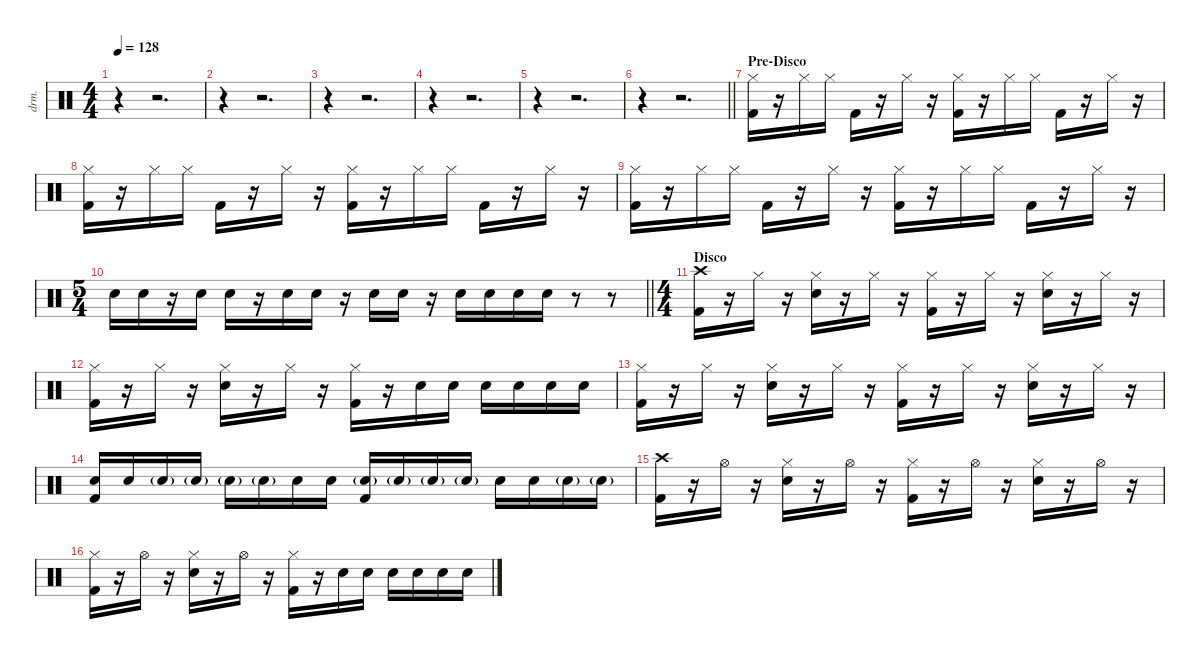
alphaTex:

\defaultSystemsLayout 4
\hideDynamics
\bracketExtendMode nobrackets
\otherSystemsTrackNameOrientation horizontal
\track ("Drums" "drm.") {instrument percussion}
\staff {score}
\articulation defaults
\ts (4 4)
\tempo 128
\clef neutral
\ks c
r.4{dy f beam Down} r.2{d beam Down} |
r.4{beam Down} r.2{d beam Down} |
r.4{beam Down} r.2{d beam Down} |
r.4{beam Down} r.2{d beam Down} |
r.4{beam Down} r.2{d beam Down} |
\barLineRight lightlight
r.4{beam Down} r.2{d beam Down} |
\section ("" "Pre-Disco")
("Hi-Hat (closed)" "Kick (hit) 2").16{beam Down} r.16{beam Down} "Hi-Hat (closed)".16{beam Down} "Hi-Hat (closed)".16{beam Down} "Kick (hit) 2".16{beam Down} r.16{beam Down} "Hi-Hat (closed)".16{beam Down} r.16{beam Down} ("Hi-Hat (closed)" "Kick (hit) 2").16{beam Down} r.16{beam Down} "Hi-Hat (closed)".16{beam Down} "Hi-Hat (closed)".16{beam Down} "Kick (hit) 2".16{beam Down} r.16{beam Down} "Hi-Hat (closed)".16{beam Down} r.16{beam Down} |
("Hi-Hat (closed)" "Kick (hit) 2").16{beam Down} r.16{beam Down} "Hi-Hat (closed)".16{beam Down} "Hi-Hat (closed)".16{beam Down} "Kick (hit) 2".16{beam Down} r.16{beam Down} "Hi-Hat (closed)".16{beam Down} r.16{beam Down} ("Hi-Hat (closed)" "Kick (hit) 2").16{beam Down} r.16{beam Down} "Hi-Hat (closed)".16{beam Down} "Hi-Hat (closed)".16{beam Down} "Kick (hit) 2".16{beam Down} r.16{beam Down} "Hi-Hat (closed)".16{beam Down} r.16{beam Down} |
("Hi-Hat (closed)" "Kick (hit) 2").16{beam Down} r.16{beam Down} "Hi-Hat (closed)".16{beam Down} "Hi-Hat (closed)".16{beam Down} "Kick (hit) 2".16{beam Down} r.16{beam Down} "Hi-Hat (closed)".16{beam Down} r.16{beam Down} ("Hi-Hat (closed)" "Kick (hit) 2").16{beam Down} r.16{beam Down} "Hi-Hat (closed)".16{beam Down} "Hi-Hat (closed)".16{beam Down} "Kick (hit) 2".16{beam Down} r.16{beam Down} "Hi-Hat (closed)".16{beam Down} r.16{beam Down} |
\ts (5 4)
\barLineRight lightlight "Snare (hit) 2".16{beam Down} "Snare (hit) 2".16{beam Down}
r.16{beam Down} "Snare (hit) 2".16{beam Down} "Snare (hit) 2".16{beam Down} r.16{beam Down} "Snare (hit) 2".16{beam Down} "Snare (hit) 2".16{beam Down} r.16{beam Down} "Snare (hit) 2".16{beam Down} "Snare (hit) 2".16{beam Down} r.16{beam Down} "Snare (hit) 2".16{beam Down} "Snare (hit) 2".16{beam Down} "Snare (hit) 2".16{beam Down} "Snare (hit) 2".16{beam Down} r.8{beam Down} r.8{beam Down} |
\ts (4 4)
\section ("" "Disco")
("Crash high (hit)" "Kick (hit) 2").16{beam Down} r.16{beam Down} "Hi-Hat (closed)".16{beam Down} r.16{beam Down} ("Hi-Hat (closed)" "Snare (hit) 2").16{beam Down} r.16{beam Down} "Hi-Hat (closed)".16{beam Down} r.16{beam Down} ("Hi-Hat (closed)" "Kick (hit) 2").16{beam Down} r.16{beam Down} "Hi-Hat (closed)".16{beam Down} r.16{beam Down} ("Hi-Hat (closed)" "Snare (hit) 2").16{beam Down} r.16{beam Down} "Hi-Hat (closed)".16{beam Down} r.16{beam Down} |
("Hi-Hat (closed)" "Kick (hit) 2").16{beam Down} r.16{beam Down} "Hi-Hat (closed)".16{beam Down} r.16{beam Down} ("Hi-Hat (closed)" "Snare (hit) 2").16{beam Down} r.16{beam Down} "Hi-Hat (closed)".16{beam Down} r.16{beam Down} ("Hi-Hat (closed)" "Kick (hit) 2").16{beam Down} r.16{beam Down} "Snare (hit) 2".16{beam Down} "Snare (hit) 2".16{beam Down} "Snare (hit) 2".16{beam Down} "Snare (hit) 2".16{beam Down} "Snare (hit) 2".16{beam Down} "Snare (hit) 2".16{beam Down} |
("Hi-Hat (closed)" "Kick (hit) 2").16{beam Down} r.16{beam Down} "Hi-Hat (closed)".16{beam Down} r.16{beam Down} ("Hi-Hat (closed)" "Snare (hit) 2").16{beam Down} r.16{beam Down} "Hi-Hat (closed)".16{beam Down} r.16{beam Down} ("Hi-Hat (closed)" "Kick (hit) 2").16{beam Down} r.16{beam Down} "Hi-Hat (closed)".16{beam Down} r.16{beam Down} ("Hi-Hat (closed)" "Snare (hit) 2").16{beam Down} r.16{beam Down} "Hi-Hat (closed)".16{beam Down} r.16{beam Down} |
("Snare (hit) 2" "Kick (hit) 2").16{beam Up} "Snare (hit) 2".16{beam Up} "Snare (hit) 2"{g}.16{beam Up} "Snare (hit) 2"{g}.16{beam Up} "Snare (hit) 2"{g}.16{beam Down} "Snare (hit) 2"{g}.16{beam Down} "Snare (hit) 2".16{beam Down} "Snare (hit) 2".16{beam Down} ("Snare (hit) 2"{g} "Kick (hit) 2").16{beam Up} "Snare (hit) 2"{g}.16{beam Up} "Snare (hit) 2"{g}.16{beam Up} "Snare (hit) 2"{g}.16{beam Up} "Snare (hit) 2".16{beam Down} "Snare (hit) 2".16{beam Down} "Snare (hit) 2"{g}.16{beam Down} "Snare (hit) 2"{g}.16{beam Down} |
("Crash high (hit)" "Kick (hit) 2").16{beam Down} r.16{beam Down} "Hi-Hat (open)".16{beam Down} r.16{beam Down} ("Hi-Hat (closed)" "Snare (hit) 2").16{beam Down} r.16{beam Down} "Hi-Hat (open)".16{beam Down} r.16{beam Down} ("Hi-Hat (closed)" "Kick (hit) 2").16{beam Down} r.16{beam Down} "Hi-Hat (open)".16{beam Down} r.16{beam Down} ("Hi-Hat (closed)" "Snare (hit) 2").16{beam Down} r.16{beam Down} "Hi-Hat (open)".16{beam Down} r.16{beam Down} |
("Hi-Hat (closed)" "Kick (hit) 2").16{beam Down} r.16{beam Down} "Hi-Hat (open)".16{beam Down} r.16{beam Down} ("Hi-Hat (closed)" "Snare (hit) 2").16{beam Down} r.16{beam Down} "Hi-Hat (open)".16{beam Down} r.16{beam Down} ("Hi-Hat (closed)" "Kick (hit) 2").16{beam Down} r.16{beam Down} "Snare (hit) 2".16{beam Down} "Snare (hit) 2".16{beam Down} "Snare (hit) 2".16{beam Down} "Snare (hit) 2".16{beam Down} "Snare (hit) 2".16{beam Down} "Snare (hit) 2".16{beam Down}
